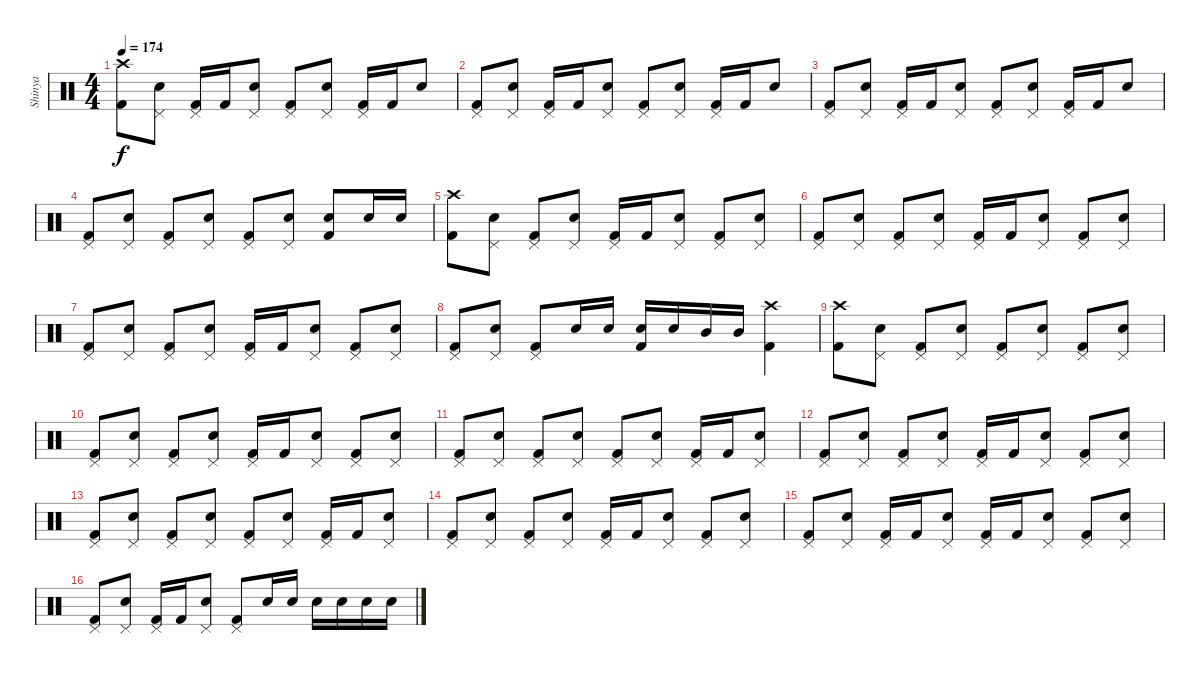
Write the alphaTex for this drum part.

\track ("Shinya" "Shinya") {instrument percussion}
\staff {score}
\articulation defaults
\ts (4 4)
\tempo 174
\clef neutral
\ks c
("Crash high (hit)" "Kick (hit) 2").8{dy f} ("Pedal Hi-Hat (hit)" "Electric Snare (hit)").8 ("Pedal Hi-Hat (hit)" "Kick (hit) 2").16 "Kick (hit) 2".16 ("Pedal Hi-Hat (hit)" "Electric Snare (hit)").8 ("Pedal Hi-Hat (hit)" "Kick (hit) 2").8 ("Pedal Hi-Hat (hit)" "Electric Snare (hit)").8 ("Pedal Hi-Hat (hit)" "Kick (hit) 2").16 "Kick (hit) 2".16 "Electric Snare (hit)".8 |
("Pedal Hi-Hat (hit)" "Kick (hit) 2").8 ("Pedal Hi-Hat (hit)" "Electric Snare (hit)").8 ("Pedal Hi-Hat (hit)" "Kick (hit) 2").16 "Kick (hit) 2".16 ("Pedal Hi-Hat (hit)" "Electric Snare (hit)").8 ("Pedal Hi-Hat (hit)" "Kick (hit) 2").8 ("Pedal Hi-Hat (hit)" "Electric Snare (hit)").8 ("Pedal Hi-Hat (hit)" "Kick (hit) 2").16 "Kick (hit) 2".16 "Electric Snare (hit)".8 |
("Pedal Hi-Hat (hit)" "Kick (hit) 2").8 ("Pedal Hi-Hat (hit)" "Electric Snare (hit)").8 ("Pedal Hi-Hat (hit)" "Kick (hit) 2").16 "Kick (hit) 2".16 ("Pedal Hi-Hat (hit)" "Electric Snare (hit)").8 ("Pedal Hi-Hat (hit)" "Kick (hit) 2").8 ("Pedal Hi-Hat (hit)" "Electric Snare (hit)").8 ("Pedal Hi-Hat (hit)" "Kick (hit) 2").16 "Kick (hit) 2".16 "Electric Snare (hit)".8 |
("Pedal Hi-Hat (hit)" "Kick (hit) 2").8 ("Pedal Hi-Hat (hit)" "Electric Snare (hit)").8 ("Pedal Hi-Hat (hit)" "Kick (hit) 2").8 ("Pedal Hi-Hat (hit)" "Electric Snare (hit)").8 ("Pedal Hi-Hat (hit)" "Kick (hit) 2").8 ("Pedal Hi-Hat (hit)" "Electric Snare (hit)").8 ("Electric Snare (hit)" "Kick (hit) 2").8 "Electric Snare (hit)".16 "Electric Snare (hit)".16 |
("Crash high (hit)" "Kick (hit) 2").8 ("Pedal Hi-Hat (hit)" "Electric Snare (hit)").8 ("Pedal Hi-Hat (hit)" "Kick (hit) 2").8 ("Pedal Hi-Hat (hit)" "Electric Snare (hit)").8 ("Pedal Hi-Hat (hit)" "Kick (hit) 2").16 "Kick (hit) 2".16 ("Pedal Hi-Hat (hit)" "Electric Snare (hit)").8 ("Pedal Hi-Hat (hit)" "Kick (hit) 2").8 ("Pedal Hi-Hat (hit)" "Electric Snare (hit)").8 |
("Pedal Hi-Hat (hit)" "Kick (hit) 2").8 ("Pedal Hi-Hat (hit)" "Electric Snare (hit)").8 ("Pedal Hi-Hat (hit)" "Kick (hit) 2").8 ("Pedal Hi-Hat (hit)" "Electric Snare (hit)").8 ("Pedal Hi-Hat (hit)" "Kick (hit) 2").16 "Kick (hit) 2".16 ("Pedal Hi-Hat (hit)" "Electric Snare (hit)").8 ("Pedal Hi-Hat (hit)" "Kick (hit) 2").8 ("Pedal Hi-Hat (hit)" "Electric Snare (hit)").8 |
("Pedal Hi-Hat (hit)" "Kick (hit) 2").8 ("Pedal Hi-Hat (hit)" "Electric Snare (hit)").8 ("Pedal Hi-Hat (hit)" "Kick (hit) 2").8 ("Pedal Hi-Hat (hit)" "Electric Snare (hit)").8 ("Pedal Hi-Hat (hit)" "Kick (hit) 2").16 "Kick (hit) 2".16 ("Pedal Hi-Hat (hit)" "Electric Snare (hit)").8 ("Pedal Hi-Hat (hit)" "Kick (hit) 2").8 ("Pedal Hi-Hat (hit)" "Electric Snare (hit)").8 |
("Pedal Hi-Hat (hit)" "Kick (hit) 2").8 ("Pedal Hi-Hat (hit)" "Electric Snare (hit)").8 ("Pedal Hi-Hat (hit)" "Kick (hit) 2").8 "Electric Snare (hit)".16 "Electric Snare (hit)".16 ("Electric Snare (hit)" "Kick (hit) 2").16 "Electric Snare (hit)".16 "Mid Tom (hit)".16 "Mid Tom (hit)".16 ("Crash high (hit)" "Kick (hit) 2").4 |
("Crash high (hit)" "Kick (hit) 2").8 ("Pedal Hi-Hat (hit)" "Electric Snare (hit)").8 ("Pedal Hi-Hat (hit)" "Kick (hit) 2").8 ("Pedal Hi-Hat (hit)" "Electric Snare (hit)").8 ("Pedal Hi-Hat (hit)" "Kick (hit) 2").8 ("Pedal Hi-Hat (hit)" "Electric Snare (hit)").8 ("Pedal Hi-Hat (hit)" "Kick (hit) 2").8 ("Pedal Hi-Hat (hit)" "Electric Snare (hit)").8 |
("Pedal Hi-Hat (hit)" "Kick (hit) 2").8 ("Pedal Hi-Hat (hit)" "Electric Snare (hit)").8 ("Pedal Hi-Hat (hit)" "Kick (hit) 2").8 ("Pedal Hi-Hat (hit)" "Electric Snare (hit)").8 ("Pedal Hi-Hat (hit)" "Kick (hit) 2").16 "Kick (hit) 2".16 ("Pedal Hi-Hat (hit)" "Electric Snare (hit)").8 ("Pedal Hi-Hat (hit)" "Kick (hit) 2").8 ("Pedal Hi-Hat (hit)" "Electric Snare (hit)").8 |
("Pedal Hi-Hat (hit)" "Kick (hit) 2").8 ("Pedal Hi-Hat (hit)" "Electric Snare (hit)").8 ("Pedal Hi-Hat (hit)" "Kick (hit) 2").8 ("Pedal Hi-Hat (hit)" "Electric Snare (hit)").8 ("Pedal Hi-Hat (hit)" "Kick (hit) 2").8 ("Pedal Hi-Hat (hit)" "Electric Snare (hit)").8 ("Pedal Hi-Hat (hit)" "Kick (hit) 2").16 "Kick (hit) 2".16 ("Pedal Hi-Hat (hit)" "Electric Snare (hit)").8 |
("Pedal Hi-Hat (hit)" "Kick (hit) 2").8 ("Pedal Hi-Hat (hit)" "Electric Snare (hit)").8 ("Pedal Hi-Hat (hit)" "Kick (hit) 2").8 ("Pedal Hi-Hat (hit)" "Electric Snare (hit)").8 ("Pedal Hi-Hat (hit)" "Kick (hit) 2").16 "Kick (hit) 2".16 ("Pedal Hi-Hat (hit)" "Electric Snare (hit)").8 ("Pedal Hi-Hat (hit)" "Kick (hit) 2").8 ("Pedal Hi-Hat (hit)" "Electric Snare (hit)").8 |
("Pedal Hi-Hat (hit)" "Kick (hit) 2").8 ("Pedal Hi-Hat (hit)" "Electric Snare (hit)").8 ("Pedal Hi-Hat (hit)" "Kick (hit) 2").8 ("Pedal Hi-Hat (hit)" "Electric Snare (hit)").8 ("Pedal Hi-Hat (hit)" "Kick (hit) 2").8 ("Pedal Hi-Hat (hit)" "Electric Snare (hit)").8 ("Pedal Hi-Hat (hit)" "Kick (hit) 2").16 "Kick (hit) 2".16 ("Pedal Hi-Hat (hit)" "Electric Snare (hit)").8 |
("Pedal Hi-Hat (hit)" "Kick (hit) 2").8 ("Pedal Hi-Hat (hit)" "Electric Snare (hit)").8 ("Pedal Hi-Hat (hit)" "Kick (hit) 2").8 ("Pedal Hi-Hat (hit)" "Electric Snare (hit)").8 ("Pedal Hi-Hat (hit)" "Kick (hit) 2").16 "Kick (hit) 2".16 ("Pedal Hi-Hat (hit)" "Electric Snare (hit)").8 ("Pedal Hi-Hat (hit)" "Kick (hit) 2").8 ("Pedal Hi-Hat (hit)" "Electric Snare (hit)").8 |
("Pedal Hi-Hat (hit)" "Kick (hit) 2").8 ("Pedal Hi-Hat (hit)" "Electric Snare (hit)").8 ("Pedal Hi-Hat (hit)" "Kick (hit) 2").16 "Kick (hit) 2".16 ("Pedal Hi-Hat (hit)" "Electric Snare (hit)").8 ("Pedal Hi-Hat (hit)" "Kick (hit) 2").16 "Kick (hit) 2".16 ("Pedal Hi-Hat (hit)" "Electric Snare (hit)").8 ("Pedal Hi-Hat (hit)" "Kick (hit) 2").8 ("Pedal Hi-Hat (hit)" "Electric Snare (hit)").8 |
("Pedal Hi-Hat (hit)" "Kick (hit) 2").8 ("Pedal Hi-Hat (hit)" "Electric Snare (hit)").8 ("Pedal Hi-Hat (hit)" "Kick (hit) 2").16 "Kick (hit) 2".16 ("Pedal Hi-Hat (hit)" "Electric Snare (hit)").8 ("Pedal Hi-Hat (hit)" "Kick (hit) 2").8 "Electric Snare (hit)".16 "Electric Snare (hit)".16 "Electric Snare (hit)".16 "Electric Snare (hit)".16 "Electric Snare (hit)".16 "Electric Snare (hit)".16
